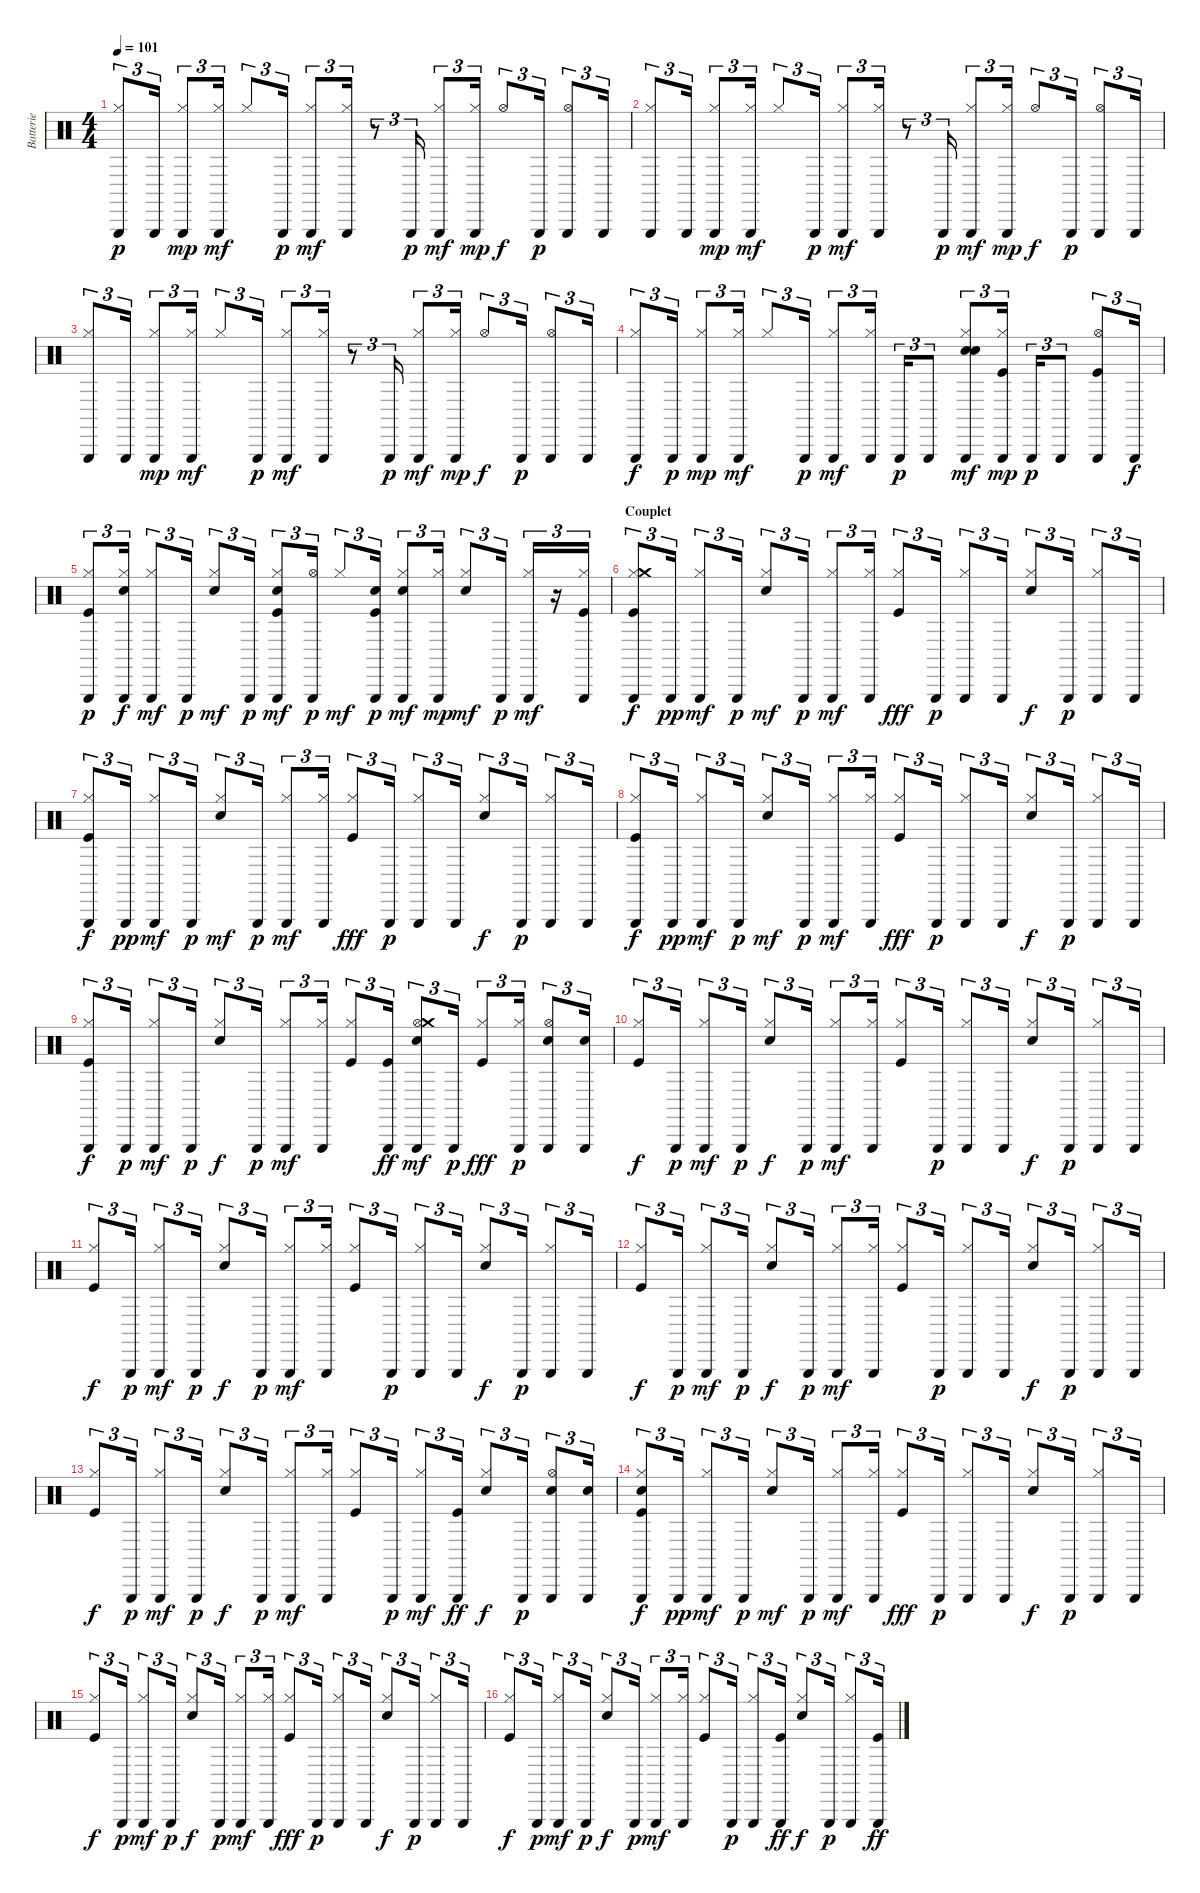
\track ("Batterie" "Batterie") {instrument percussion}
\staff {score}
\articulation defaults
\ts (4 4)
\tempo 101
\clef neutral
\ks c
("Triangle (hit)" "Hi-Hat (closed)").8{tu (3 2) dy p} "Triangle (hit)".16{tu (3 2)} ("Triangle (hit)" "Hi-Hat (closed)").8{tu (3 2) dy mp} ("Triangle (hit)" "Hi-Hat (closed)").16{tu (3 2) dy mf} "Hi-Hat (closed)".8{tu (3 2)} "Triangle (hit)".16{tu (3 2) dy p} ("Triangle (hit)" "Hi-Hat (closed)").8{tu (3 2) dy mf} ("Triangle (hit)" "Hi-Hat (closed)").16{tu (3 2)} r.8{tu (3 2)} "Triangle (hit)".16{tu (3 2) dy p} ("Triangle (hit)" "Hi-Hat (closed)").8{tu (3 2) dy mf} ("Triangle (hit)" "Hi-Hat (closed)").16{tu (3 2) dy mp} "Hi-Hat (open)".8{tu (3 2) dy f} "Triangle (hit)".16{tu (3 2) dy p} ("Hi-Hat (open)" "Triangle (hit)").8{tu (3 2)} "Triangle (hit)".16{tu (3 2)} |
("Triangle (hit)" "Hi-Hat (closed)").8{tu (3 2)} "Triangle (hit)".16{tu (3 2)} ("Triangle (hit)" "Hi-Hat (closed)").8{tu (3 2) dy mp} ("Triangle (hit)" "Hi-Hat (closed)").16{tu (3 2) dy mf} "Hi-Hat (closed)".8{tu (3 2)} "Triangle (hit)".16{tu (3 2) dy p} ("Triangle (hit)" "Hi-Hat (closed)").8{tu (3 2) dy mf} ("Triangle (hit)" "Hi-Hat (closed)").16{tu (3 2)} r.8{tu (3 2)} "Triangle (hit)".16{tu (3 2) dy p} ("Triangle (hit)" "Hi-Hat (closed)").8{tu (3 2) dy mf} ("Triangle (hit)" "Hi-Hat (closed)").16{tu (3 2) dy mp} "Hi-Hat (open)".8{tu (3 2) dy f} "Triangle (hit)".16{tu (3 2) dy p} ("Hi-Hat (open)" "Triangle (hit)").8{tu (3 2)} "Triangle (hit)".16{tu (3 2)} |
("Triangle (hit)" "Hi-Hat (closed)").8{tu (3 2)} "Triangle (hit)".16{tu (3 2)} ("Triangle (hit)" "Hi-Hat (closed)").8{tu (3 2) dy mp} ("Triangle (hit)" "Hi-Hat (closed)").16{tu (3 2) dy mf} "Hi-Hat (closed)".8{tu (3 2)} "Triangle (hit)".16{tu (3 2) dy p} ("Triangle (hit)" "Hi-Hat (closed)").8{tu (3 2) dy mf} ("Triangle (hit)" "Hi-Hat (closed)").16{tu (3 2)} r.8{tu (3 2)} "Triangle (hit)".16{tu (3 2) dy p} ("Triangle (hit)" "Hi-Hat (closed)").8{tu (3 2) dy mf} ("Triangle (hit)" "Hi-Hat (closed)").16{tu (3 2) dy mp} "Hi-Hat (open)".8{tu (3 2) dy f} "Triangle (hit)".16{tu (3 2) dy p} ("Hi-Hat (open)" "Triangle (hit)").8{tu (3 2)} "Triangle (hit)".16{tu (3 2)} |
("Triangle (hit)" "Hi-Hat (closed)").8{tu (3 2) dy f} "Triangle (hit)".16{tu (3 2) dy p} ("Triangle (hit)" "Hi-Hat (closed)").8{tu (3 2) dy mp} ("Triangle (hit)" "Hi-Hat (closed)").16{tu (3 2) dy mf} "Hi-Hat (closed)".8{tu (3 2)} "Triangle (hit)".16{tu (3 2) dy p} ("Triangle (hit)" "Hi-Hat (closed)").8{tu (3 2) dy mf} ("Triangle (hit)" "Hi-Hat (closed)").16{tu (3 2)} "Triangle (hit)".16{tu (3 2) dy p} "Triangle (hit)".8{tu (3 2)} ("Electric Snare (hit)" "Electric Snare (hit)" "Triangle (hit)" "Hi-Hat (closed)").8{tu (3 2) dy mf} ("Kick (hit)" "Triangle (hit)" "Hi-Hat (closed)").16{tu (3 2) dy mp} "Triangle (hit)".16{tu (3 2) dy p} "Triangle (hit)".8{tu (3 2)} ("Hi-Hat (open)" "Triangle (hit)" "Kick (hit)").8{tu (3 2)} "Triangle (hit)".16{tu (3 2) dy f} |
("Triangle (hit)" "Hi-Hat (closed)" "Kick (hit)").8{tu (3 2) dy p} ("Triangle (hit)" "Hi-Hat (closed)" "Electric Snare (hit)").16{tu (3 2) dy f} ("Triangle (hit)" "Hi-Hat (closed)").8{tu (3 2) dy mf} "Triangle (hit)".16{tu (3 2) dy p} ("Electric Snare (hit)" "Hi-Hat (closed)").8{tu (3 2) dy mf} "Triangle (hit)".16{tu (3 2) dy p} ("Electric Snare (hit)" "Triangle (hit)" "Kick (hit)" "Hi-Hat (closed)").8{tu (3 2) dy mf} ("Hi-Hat (open)" "Triangle (hit)").16{tu (3 2) dy p} "Hi-Hat (closed)".8{tu (3 2) dy mf} ("Electric Snare (hit)" "Triangle (hit)" "Kick (hit)").16{tu (3 2) dy p} ("Electric Snare (hit)" "Triangle (hit)" "Hi-Hat (closed)").8{tu (3 2) dy mf} ("Triangle (hit)" "Hi-Hat (closed)").16{tu (3 2) dy mp} ("Electric Snare (hit)" "Hi-Hat (closed)").8{tu (3 2) dy mf} "Triangle (hit)".16{tu (3 2) dy p} ("Triangle (hit)" "Hi-Hat (closed)").16{tu (3 2) dy mf} r.16{tu (3 2)} ("Triangle (hit)" "Kick (hit)" "Hi-Hat (closed)").16{tu (3 2)} |
\section ("" "Couplet")
("Triangle (hit)" "Kick (hit)" "Hi-Hat (closed)" "Crash medium (hit)").8{tu (3 2) dy f} "Triangle (hit)".16{tu (3 2) dy pp} ("Triangle (hit)" "Hi-Hat (closed)").8{tu (3 2) dy mf} "Triangle (hit)".16{tu (3 2) dy p} ("Electric Snare (hit)" "Hi-Hat (closed)").8{tu (3 2) dy mf} "Triangle (hit)".16{tu (3 2) dy p} ("Triangle (hit)" "Hi-Hat (closed)").8{tu (3 2) dy mf} ("Triangle (hit)" "Hi-Hat (closed)").16{tu (3 2)} ("Kick (hit)" "Hi-Hat (closed)").8{tu (3 2) dy fff} "Triangle (hit)".16{tu (3 2) dy p} ("Triangle (hit)" "Hi-Hat (closed)").8{tu (3 2)} "Triangle (hit)".16{tu (3 2)} ("Electric Snare (hit)" "Hi-Hat (closed)").8{tu (3 2) dy f} "Triangle (hit)".16{tu (3 2) dy p} ("Triangle (hit)" "Hi-Hat (closed)").8{tu (3 2)} "Triangle (hit)".16{tu (3 2)} |
("Triangle (hit)" "Kick (hit)" "Hi-Hat (closed)").8{tu (3 2) dy f} "Triangle (hit)".16{tu (3 2) dy pp} ("Triangle (hit)" "Hi-Hat (closed)").8{tu (3 2) dy mf} "Triangle (hit)".16{tu (3 2) dy p} ("Electric Snare (hit)" "Hi-Hat (closed)").8{tu (3 2) dy mf} "Triangle (hit)".16{tu (3 2) dy p} ("Triangle (hit)" "Hi-Hat (closed)").8{tu (3 2) dy mf} ("Triangle (hit)" "Hi-Hat (closed)").16{tu (3 2)} ("Kick (hit)" "Hi-Hat (closed)").8{tu (3 2) dy fff} "Triangle (hit)".16{tu (3 2) dy p} ("Triangle (hit)" "Hi-Hat (closed)").8{tu (3 2)} "Triangle (hit)".16{tu (3 2)} ("Electric Snare (hit)" "Hi-Hat (closed)").8{tu (3 2) dy f} "Triangle (hit)".16{tu (3 2) dy p} ("Triangle (hit)" "Hi-Hat (closed)").8{tu (3 2)} "Triangle (hit)".16{tu (3 2)} |
("Triangle (hit)" "Kick (hit)" "Hi-Hat (closed)").8{tu (3 2) dy f} "Triangle (hit)".16{tu (3 2) dy pp} ("Triangle (hit)" "Hi-Hat (closed)").8{tu (3 2) dy mf} "Triangle (hit)".16{tu (3 2) dy p} ("Electric Snare (hit)" "Hi-Hat (closed)").8{tu (3 2) dy mf} "Triangle (hit)".16{tu (3 2) dy p} ("Triangle (hit)" "Hi-Hat (closed)").8{tu (3 2) dy mf} ("Triangle (hit)" "Hi-Hat (closed)").16{tu (3 2)} ("Kick (hit)" "Hi-Hat (closed)").8{tu (3 2) dy fff} "Triangle (hit)".16{tu (3 2) dy p} ("Triangle (hit)" "Hi-Hat (closed)").8{tu (3 2)} "Triangle (hit)".16{tu (3 2)} ("Electric Snare (hit)" "Hi-Hat (closed)").8{tu (3 2) dy f} "Triangle (hit)".16{tu (3 2) dy p} ("Triangle (hit)" "Hi-Hat (closed)").8{tu (3 2)} "Triangle (hit)".16{tu (3 2)} |
("Triangle (hit)" "Kick (hit)" "Hi-Hat (closed)").8{tu (3 2) dy f} "Triangle (hit)".16{tu (3 2) dy p} ("Triangle (hit)" "Hi-Hat (closed)").8{tu (3 2) dy mf} "Triangle (hit)".16{tu (3 2) dy p} ("Electric Snare (hit)" "Hi-Hat (closed)").8{tu (3 2) dy f} "Triangle (hit)".16{tu (3 2) dy p} ("Triangle (hit)" "Hi-Hat (closed)").8{tu (3 2) dy mf} ("Triangle (hit)" "Hi-Hat (closed)").16{tu (3 2)} ("Kick (hit)" "Hi-Hat (closed)").8{tu (3 2)} ("Triangle (hit)" "Kick (hit)").16{tu (3 2) dy ff} ("Electric Snare (hit)" "Hi-Hat (open)" "Triangle (hit)" "Crash medium (hit)").8{tu (3 2) dy mf} "Triangle (hit)".16{tu (3 2) dy p} ("Kick (hit)" "Hi-Hat (closed)").8{tu (3 2) dy fff} ("Triangle (hit)" "Hi-Hat (closed)").16{tu (3 2) dy p} ("Electric Snare (hit)" "Hi-Hat (open)" "Triangle (hit)").8{tu (3 2)} ("Electric Snare (hit)" "Triangle (hit)").16{tu (3 2)} |
("Kick (hit)" "Hi-Hat (closed)").8{tu (3 2) dy f} "Triangle (hit)".16{tu (3 2) dy p} ("Triangle (hit)" "Hi-Hat (closed)").8{tu (3 2) dy mf} "Triangle (hit)".16{tu (3 2) dy p} ("Electric Snare (hit)" "Hi-Hat (closed)").8{tu (3 2) dy f} "Triangle (hit)".16{tu (3 2) dy p} ("Triangle (hit)" "Hi-Hat (closed)").8{tu (3 2) dy mf} ("Triangle (hit)" "Hi-Hat (closed)").16{tu (3 2)} ("Kick (hit)" "Hi-Hat (closed)").8{tu (3 2)} "Triangle (hit)".16{tu (3 2) dy p} ("Triangle (hit)" "Hi-Hat (closed)").8{tu (3 2)} "Triangle (hit)".16{tu (3 2)} ("Electric Snare (hit)" "Hi-Hat (closed)").8{tu (3 2) dy f} "Triangle (hit)".16{tu (3 2) dy p} ("Triangle (hit)" "Hi-Hat (closed)").8{tu (3 2)} "Triangle (hit)".16{tu (3 2)} |
("Kick (hit)" "Hi-Hat (closed)").8{tu (3 2) dy f} "Triangle (hit)".16{tu (3 2) dy p} ("Triangle (hit)" "Hi-Hat (closed)").8{tu (3 2) dy mf} "Triangle (hit)".16{tu (3 2) dy p} ("Electric Snare (hit)" "Hi-Hat (closed)").8{tu (3 2) dy f} "Triangle (hit)".16{tu (3 2) dy p} ("Triangle (hit)" "Hi-Hat (closed)").8{tu (3 2) dy mf} ("Triangle (hit)" "Hi-Hat (closed)").16{tu (3 2)} ("Kick (hit)" "Hi-Hat (closed)").8{tu (3 2)} "Triangle (hit)".16{tu (3 2) dy p} ("Triangle (hit)" "Hi-Hat (closed)").8{tu (3 2)} "Triangle (hit)".16{tu (3 2)} ("Electric Snare (hit)" "Hi-Hat (closed)").8{tu (3 2) dy f} "Triangle (hit)".16{tu (3 2) dy p} ("Triangle (hit)" "Hi-Hat (closed)").8{tu (3 2)} "Triangle (hit)".16{tu (3 2)} |
("Kick (hit)" "Hi-Hat (closed)").8{tu (3 2) dy f} "Triangle (hit)".16{tu (3 2) dy p} ("Triangle (hit)" "Hi-Hat (closed)").8{tu (3 2) dy mf} "Triangle (hit)".16{tu (3 2) dy p} ("Electric Snare (hit)" "Hi-Hat (closed)").8{tu (3 2) dy f} "Triangle (hit)".16{tu (3 2) dy p} ("Triangle (hit)" "Hi-Hat (closed)").8{tu (3 2) dy mf} ("Triangle (hit)" "Hi-Hat (closed)").16{tu (3 2)} ("Kick (hit)" "Hi-Hat (closed)").8{tu (3 2)} "Triangle (hit)".16{tu (3 2) dy p} ("Triangle (hit)" "Hi-Hat (closed)").8{tu (3 2)} "Triangle (hit)".16{tu (3 2)} ("Electric Snare (hit)" "Hi-Hat (closed)").8{tu (3 2) dy f} "Triangle (hit)".16{tu (3 2) dy p} ("Triangle (hit)" "Hi-Hat (closed)").8{tu (3 2)} "Triangle (hit)".16{tu (3 2)} |
("Kick (hit)" "Hi-Hat (closed)").8{tu (3 2) dy f} "Triangle (hit)".16{tu (3 2) dy p} ("Triangle (hit)" "Hi-Hat (closed)").8{tu (3 2) dy mf} "Triangle (hit)".16{tu (3 2) dy p} ("Electric Snare (hit)" "Hi-Hat (closed)").8{tu (3 2) dy f} "Triangle (hit)".16{tu (3 2) dy p} ("Triangle (hit)" "Hi-Hat (closed)").8{tu (3 2) dy mf} ("Triangle (hit)" "Hi-Hat (closed)").16{tu (3 2)} ("Kick (hit)" "Hi-Hat (closed)").8{tu (3 2)} "Triangle (hit)".16{tu (3 2) dy p} ("Triangle (hit)" "Hi-Hat (closed)").8{tu (3 2) dy mf} ("Triangle (hit)" "Kick (hit)").16{tu (3 2) dy ff} ("Electric Snare (hit)" "Hi-Hat (closed)").8{tu (3 2) dy f} "Triangle (hit)".16{tu (3 2) dy p} ("Electric Snare (hit)" "Hi-Hat (open)" "Triangle (hit)").8{tu (3 2)} ("Electric Snare (hit)" "Triangle (hit)").16{tu (3 2)} |
("Triangle (hit)" "Kick (hit)" "Hi-Hat (closed)" "Snare (hit)").8{tu (3 2) dy f} "Triangle (hit)".16{tu (3 2) dy pp} ("Triangle (hit)" "Hi-Hat (closed)").8{tu (3 2) dy mf} "Triangle (hit)".16{tu (3 2) dy p} ("Electric Snare (hit)" "Hi-Hat (closed)").8{tu (3 2) dy mf} "Triangle (hit)".16{tu (3 2) dy p} ("Triangle (hit)" "Hi-Hat (closed)").8{tu (3 2) dy mf} ("Triangle (hit)" "Hi-Hat (closed)").16{tu (3 2)} ("Kick (hit)" "Hi-Hat (closed)").8{tu (3 2) dy fff} "Triangle (hit)".16{tu (3 2) dy p} ("Triangle (hit)" "Hi-Hat (closed)").8{tu (3 2)} "Triangle (hit)".16{tu (3 2)} ("Electric Snare (hit)" "Hi-Hat (closed)").8{tu (3 2) dy f} "Triangle (hit)".16{tu (3 2) dy p} ("Triangle (hit)" "Hi-Hat (closed)").8{tu (3 2)} "Triangle (hit)".16{tu (3 2)} |
("Kick (hit)" "Hi-Hat (closed)").8{tu (3 2) dy f} "Triangle (hit)".16{tu (3 2) dy p} ("Triangle (hit)" "Hi-Hat (closed)").8{tu (3 2) dy mf} "Triangle (hit)".16{tu (3 2) dy p} ("Electric Snare (hit)" "Hi-Hat (closed)").8{tu (3 2) dy f} "Triangle (hit)".16{tu (3 2) dy p} ("Triangle (hit)" "Hi-Hat (closed)").8{tu (3 2) dy mf} ("Triangle (hit)" "Hi-Hat (closed)").16{tu (3 2)} ("Kick (hit)" "Hi-Hat (closed)").8{tu (3 2) dy fff} "Triangle (hit)".16{tu (3 2) dy p} ("Triangle (hit)" "Hi-Hat (closed)").8{tu (3 2)} "Triangle (hit)".16{tu (3 2)} ("Electric Snare (hit)" "Hi-Hat (closed)").8{tu (3 2) dy f} "Triangle (hit)".16{tu (3 2) dy p} ("Triangle (hit)" "Hi-Hat (closed)").8{tu (3 2)} "Triangle (hit)".16{tu (3 2)} |
("Kick (hit)" "Hi-Hat (closed)").8{tu (3 2) dy f} "Triangle (hit)".16{tu (3 2) dy p} ("Triangle (hit)" "Hi-Hat (closed)").8{tu (3 2) dy mf} "Triangle (hit)".16{tu (3 2) dy p} ("Electric Snare (hit)" "Hi-Hat (closed)").8{tu (3 2) dy f} "Triangle (hit)".16{tu (3 2) dy p} ("Triangle (hit)" "Hi-Hat (closed)").8{tu (3 2) dy mf} ("Triangle (hit)" "Hi-Hat (closed)").16{tu (3 2)} ("Kick (hit)" "Hi-Hat (closed)").8{tu (3 2)} "Triangle (hit)".16{tu (3 2) dy p} ("Triangle (hit)" "Hi-Hat (closed)").8{tu (3 2)} ("Triangle (hit)" "Kick (hit)").16{tu (3 2) dy ff} ("Electric Snare (hit)" "Hi-Hat (closed)").8{tu (3 2) dy f} "Triangle (hit)".16{tu (3 2) dy p} ("Triangle (hit)" "Hi-Hat (closed)").8{tu (3 2)} ("Triangle (hit)" "Kick (hit)").16{tu (3 2) dy ff}
